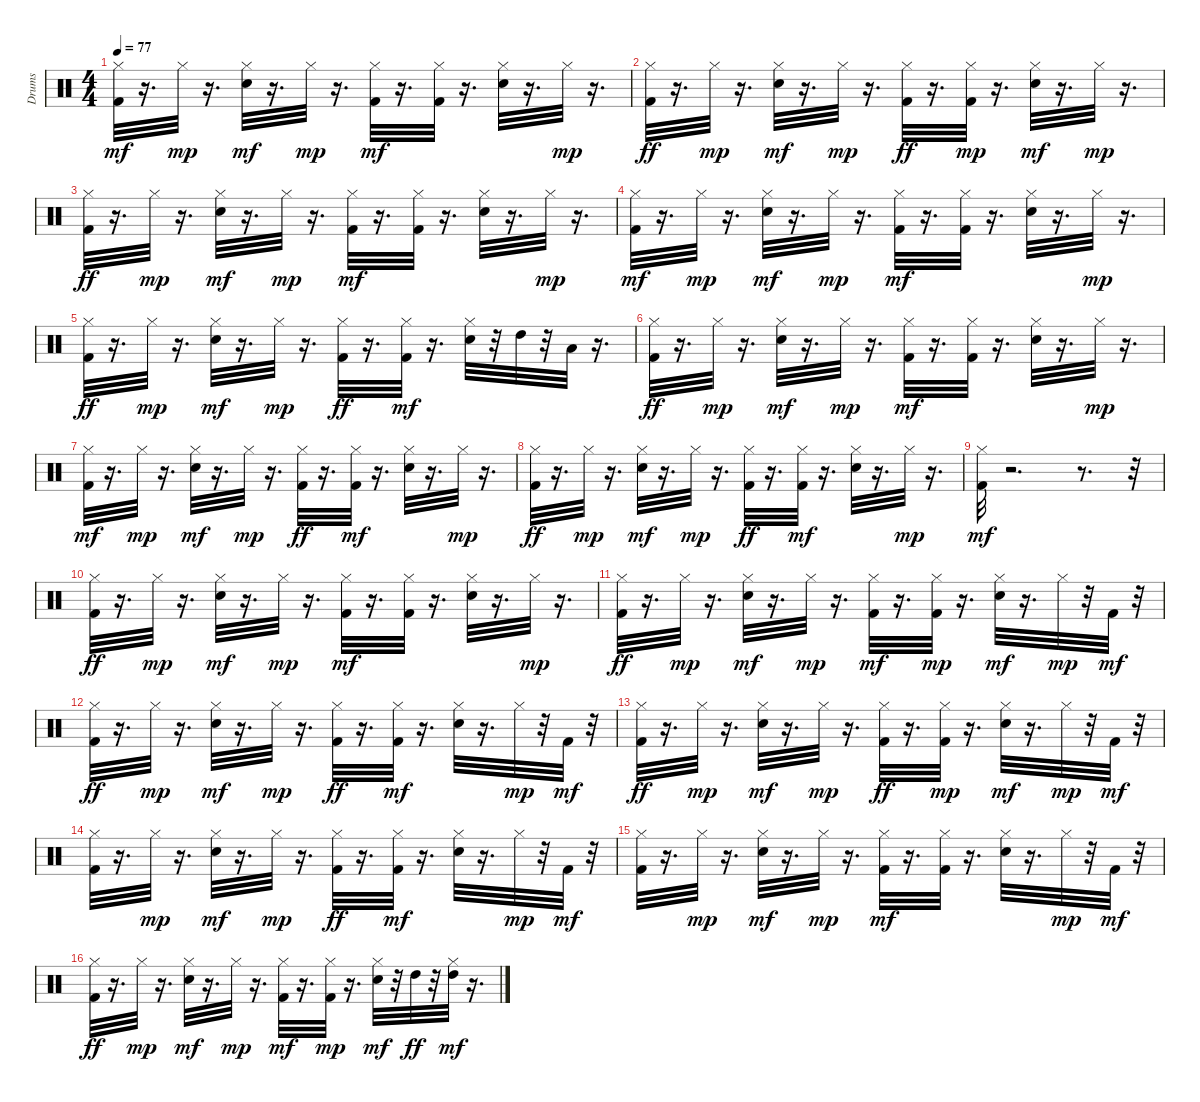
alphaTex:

\track ("Drums" "Drums") {instrument percussion}
\staff {score}
\articulation defaults
\ts (4 4)
\tempo 77
\clef neutral
\ks c
("Kick (hit) 2" "Hi-Hat (closed)").32{dy mf} r.16{d} "Hi-Hat (closed)".32{dy mp} r.16{d} ("Hi-Hat (closed)" "Electric Snare (hit)").32{dy mf} r.16{d} "Hi-Hat (closed)".32{dy mp} r.16{d} ("Kick (hit) 2" "Hi-Hat (closed)").32{dy mf} r.16{d} ("Hi-Hat (closed)" "Kick (hit) 2").32 r.16{d} ("Hi-Hat (closed)" "Electric Snare (hit)").32 r.16{d} "Hi-Hat (closed)".32{dy mp} r.16{d} |
("Hi-Hat (closed)" "Kick (hit) 2").32{dy ff} r.16{d} "Hi-Hat (closed)".32{dy mp} r.16{d} ("Electric Snare (hit)" "Hi-Hat (closed)").32{dy mf} r.16{d} "Hi-Hat (closed)".32{dy mp} r.16{d} ("Hi-Hat (closed)" "Kick (hit) 2").32{dy ff} r.16{d} ("Kick (hit) 2" "Hi-Hat (closed)").32{dy mp} r.16{d} ("Hi-Hat (closed)" "Electric Snare (hit)").32{dy mf} r.16{d} "Hi-Hat (closed)".32{dy mp} r.16{d} |
("Hi-Hat (closed)" "Kick (hit) 2").32{dy ff} r.16{d} "Hi-Hat (closed)".32{dy mp} r.16{d} ("Hi-Hat (closed)" "Electric Snare (hit)").32{dy mf} r.16{d} "Hi-Hat (closed)".32{dy mp} r.16{d} ("Kick (hit) 2" "Hi-Hat (closed)").32{dy mf} r.16{d} ("Hi-Hat (closed)" "Kick (hit) 2").32 r.16{d} ("Hi-Hat (closed)" "Electric Snare (hit)").32 r.16{d} "Hi-Hat (closed)".32{dy mp} r.16{d} |
("Kick (hit) 2" "Hi-Hat (closed)").32{dy mf} r.16{d} "Hi-Hat (closed)".32{dy mp} r.16{d} ("Electric Snare (hit)" "Hi-Hat (closed)").32{dy mf} r.16{d} "Hi-Hat (closed)".32{dy mp} r.16{d} ("Kick (hit) 2" "Hi-Hat (closed)").32{dy mf} r.16{d} ("Hi-Hat (closed)" "Kick (hit) 2").32 r.16{d} ("Hi-Hat (closed)" "Electric Snare (hit)").32 r.16{d} "Hi-Hat (closed)".32{dy mp} r.16{d} |
("Hi-Hat (closed)" "Kick (hit) 2").32{dy ff} r.16{d} "Hi-Hat (closed)".32{dy mp} r.16{d} ("Hi-Hat (closed)" "Electric Snare (hit)").32{dy mf} r.16{d} "Hi-Hat (closed)".32{dy mp} r.16{d} ("Hi-Hat (closed)" "Kick (hit) 2").32{dy ff} r.16{d} ("Hi-Hat (closed)" "Kick (hit) 2").32{dy mf} r.16{d} ("Electric Snare (hit)" "Hi-Hat (closed)").32 r.32 "High Tom (hit)".32 r.32 "Low Floor Tom (hit)".32 r.16{d} |
("Hi-Hat (closed)" "Kick (hit) 2").32{dy ff} r.16{d} "Hi-Hat (closed)".32{dy mp} r.16{d} ("Electric Snare (hit)" "Hi-Hat (closed)").32{dy mf} r.16{d} "Hi-Hat (closed)".32{dy mp} r.16{d} ("Kick (hit) 2" "Hi-Hat (closed)").32{dy mf} r.16{d} ("Hi-Hat (closed)" "Kick (hit) 2").32 r.16{d} ("Hi-Hat (closed)" "Electric Snare (hit)").32 r.16{d} "Hi-Hat (closed)".32{dy mp} r.16{d} |
("Kick (hit) 2" "Hi-Hat (closed)").32{dy mf} r.16{d} "Hi-Hat (closed)".32{dy mp} r.16{d} ("Hi-Hat (closed)" "Electric Snare (hit)").32{dy mf} r.16{d} "Hi-Hat (closed)".32{dy mp} r.16{d} ("Hi-Hat (closed)" "Kick (hit) 2").32{dy ff} r.16{d} ("Hi-Hat (closed)" "Kick (hit) 2").32{dy mf} r.16{d} ("Electric Snare (hit)" "Hi-Hat (closed)").32 r.16{d} "Hi-Hat (closed)".32{dy mp} r.16{d} |
("Hi-Hat (closed)" "Kick (hit) 2").32{dy ff} r.16{d} "Hi-Hat (closed)".32{dy mp} r.16{d} ("Electric Snare (hit)" "Hi-Hat (closed)").32{dy mf} r.16{d} "Hi-Hat (closed)".32{dy mp} r.16{d} ("Hi-Hat (closed)" "Kick (hit) 2").32{dy ff} r.16{d} ("Hi-Hat (closed)" "Kick (hit) 2").32{dy mf} r.16{d} ("Electric Snare (hit)" "Hi-Hat (closed)").32 r.16{d} "Hi-Hat (closed)".32{dy mp} r.16{d} |
("Kick (hit) 2" "Hi-Hat (closed)").32{dy mf} r.2{d} r.8{d} r.32 |
("Hi-Hat (closed)" "Kick (hit) 2").32{dy ff} r.16{d} "Hi-Hat (closed)".32{dy mp} r.16{d} ("Hi-Hat (closed)" "Electric Snare (hit)").32{dy mf} r.16{d} "Hi-Hat (closed)".32{dy mp} r.16{d} ("Kick (hit) 2" "Hi-Hat (closed)").32{dy mf} r.16{d} ("Hi-Hat (closed)" "Kick (hit) 2").32 r.16{d} ("Hi-Hat (closed)" "Electric Snare (hit)").32 r.16{d} "Hi-Hat (closed)".32{dy mp} r.16{d} |
("Hi-Hat (closed)" "Kick (hit) 2").32{dy ff} r.16{d} "Hi-Hat (closed)".32{dy mp} r.16{d} ("Electric Snare (hit)" "Hi-Hat (closed)").32{dy mf} r.16{d} "Hi-Hat (closed)".32{dy mp} r.16{d} ("Kick (hit) 2" "Hi-Hat (closed)").32{dy mf} r.16{d} ("Kick (hit) 2" "Hi-Hat (closed)").32{dy mp} r.16{d} ("Hi-Hat (closed)" "Electric Snare (hit)").32{dy mf} r.16{d} "Hi-Hat (closed)".32{dy mp} r.32 "Kick (hit) 2".32{dy mf} r.32 |
("Hi-Hat (closed)" "Kick (hit) 2").32{dy ff} r.16{d} "Hi-Hat (closed)".32{dy mp} r.16{d} ("Hi-Hat (closed)" "Electric Snare (hit)").32{dy mf} r.16{d} "Hi-Hat (closed)".32{dy mp} r.16{d} ("Hi-Hat (closed)" "Kick (hit) 2").32{dy ff} r.16{d} ("Hi-Hat (closed)" "Kick (hit) 2").32{dy mf} r.16{d} ("Electric Snare (hit)" "Hi-Hat (closed)").32 r.16{d} "Hi-Hat (closed)".32{dy mp} r.32 "Kick (hit) 2".32{dy mf} r.32 |
("Hi-Hat (closed)" "Kick (hit) 2").32{dy ff} r.16{d} "Hi-Hat (closed)".32{dy mp} r.16{d} ("Hi-Hat (closed)" "Electric Snare (hit)").32{dy mf} r.16{d} "Hi-Hat (closed)".32{dy mp} r.16{d} ("Hi-Hat (closed)" "Kick (hit) 2").32{dy ff} r.16{d} ("Kick (hit) 2" "Hi-Hat (closed)").32{dy mp} r.16{d} ("Electric Snare (hit)" "Hi-Hat (closed)").32{dy mf} r.16{d} "Hi-Hat (closed)".32{dy mp} r.32 "Kick (hit) 2".32{dy mf} r.32 |
("Kick (hit) 2" "Hi-Hat (closed)").32 r.16{d} "Hi-Hat (closed)".32{dy mp} r.16{d} ("Electric Snare (hit)" "Hi-Hat (closed)").32{dy mf} r.16{d} "Hi-Hat (closed)".32{dy mp} r.16{d} ("Hi-Hat (closed)" "Kick (hit) 2").32{dy ff} r.16{d} ("Hi-Hat (closed)" "Kick (hit) 2").32{dy mf} r.16{d} ("Electric Snare (hit)" "Hi-Hat (closed)").32 r.16{d} "Hi-Hat (closed)".32{dy mp} r.32 "Kick (hit) 2".32{dy mf} r.32 |
("Kick (hit) 2" "Hi-Hat (closed)").32 r.16{d} "Hi-Hat (closed)".32{dy mp} r.16{d} ("Hi-Hat (closed)" "Electric Snare (hit)").32{dy mf} r.16{d} "Hi-Hat (closed)".32{dy mp} r.16{d} ("Kick (hit) 2" "Hi-Hat (closed)").32{dy mf} r.16{d} ("Hi-Hat (closed)" "Kick (hit) 2").32 r.16{d} ("Electric Snare (hit)" "Hi-Hat (closed)").32 r.16{d} "Hi-Hat (closed)".32{dy mp} r.32 "Kick (hit) 2".32{dy mf} r.32 |
("Hi-Hat (closed)" "Kick (hit) 2").32{dy ff} r.16{d} "Hi-Hat (closed)".32{dy mp} r.16{d} ("Electric Snare (hit)" "Hi-Hat (closed)").32{dy mf} r.16{d} "Hi-Hat (closed)".32{dy mp} r.16{d} ("Kick (hit) 2" "Hi-Hat (closed)").32{dy mf} r.16{d} ("Kick (hit) 2" "Hi-Hat (closed)").32{dy mp} r.16{d} ("Electric Snare (hit)" "Hi-Hat (closed)").32{dy mf} r.32 "High Tom (hit)".32{dy ff} r.32 ("Hi-Hat (closed)" "High Tom (hit)").32{dy mf} r.16{d}
